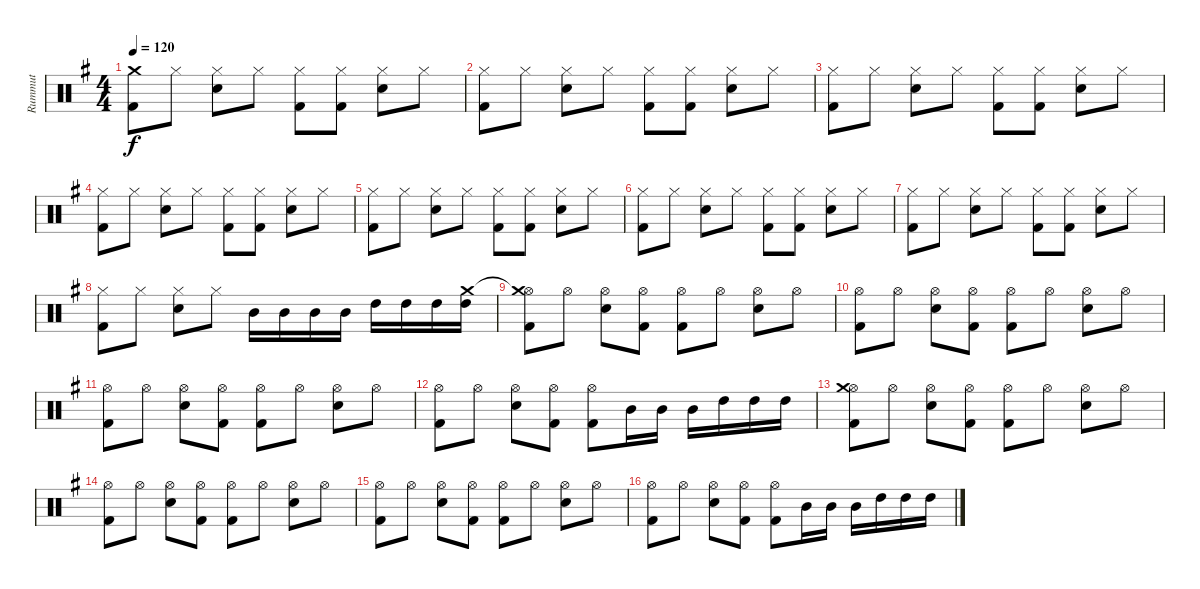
\track ("Rummut" "Rummut") {instrument percussion}
\staff {score}
\articulation defaults
\ts (4 4)
\tempo 120
\clef neutral
\ks g
("Kick (hit) 2" "Crash medium (hit)").8{dy f} "Hi-Hat (closed)".8 ("Snare (hit) 2" "Hi-Hat (closed)").8 "Hi-Hat (closed)".8 ("Kick (hit) 2" "Hi-Hat (closed)").8 ("Kick (hit) 2" "Hi-Hat (closed)").8 ("Snare (hit) 2" "Hi-Hat (closed)").8 "Hi-Hat (closed)".8 |
("Kick (hit) 2" "Hi-Hat (closed)").8 "Hi-Hat (closed)".8 ("Snare (hit) 2" "Hi-Hat (closed)").8 "Hi-Hat (closed)".8 ("Kick (hit) 2" "Hi-Hat (closed)").8 ("Kick (hit) 2" "Hi-Hat (closed)").8 ("Snare (hit) 2" "Hi-Hat (closed)").8 "Hi-Hat (closed)".8 |
("Kick (hit) 2" "Hi-Hat (closed)").8 "Hi-Hat (closed)".8 ("Snare (hit) 2" "Hi-Hat (closed)").8 "Hi-Hat (closed)".8 ("Kick (hit) 2" "Hi-Hat (closed)").8 ("Kick (hit) 2" "Hi-Hat (closed)").8 ("Snare (hit) 2" "Hi-Hat (closed)").8 "Hi-Hat (closed)".8 |
("Kick (hit) 2" "Hi-Hat (closed)").8 "Hi-Hat (closed)".8 ("Snare (hit) 2" "Hi-Hat (closed)").8 "Hi-Hat (closed)".8 ("Kick (hit) 2" "Hi-Hat (closed)").8 ("Kick (hit) 2" "Hi-Hat (closed)").8 ("Snare (hit) 2" "Hi-Hat (closed)").8 "Hi-Hat (closed)".8 |
("Kick (hit) 2" "Hi-Hat (closed)").8 "Hi-Hat (closed)".8 ("Snare (hit) 2" "Hi-Hat (closed)").8 "Hi-Hat (closed)".8 ("Kick (hit) 2" "Hi-Hat (closed)").8 ("Kick (hit) 2" "Hi-Hat (closed)").8 ("Snare (hit) 2" "Hi-Hat (closed)").8 "Hi-Hat (closed)".8 |
("Kick (hit) 2" "Hi-Hat (closed)").8 "Hi-Hat (closed)".8 ("Snare (hit) 2" "Hi-Hat (closed)").8 "Hi-Hat (closed)".8 ("Kick (hit) 2" "Hi-Hat (closed)").8 ("Kick (hit) 2" "Hi-Hat (closed)").8 ("Snare (hit) 2" "Hi-Hat (closed)").8 "Hi-Hat (closed)".8 |
("Kick (hit) 2" "Hi-Hat (closed)").8 "Hi-Hat (closed)".8 ("Snare (hit) 2" "Hi-Hat (closed)").8 "Hi-Hat (closed)".8 ("Kick (hit) 2" "Hi-Hat (closed)").8 ("Kick (hit) 2" "Hi-Hat (closed)").8 ("Snare (hit) 2" "Hi-Hat (closed)").8 "Hi-Hat (closed)".8 |
("Kick (hit) 2" "Hi-Hat (closed)").8 "Hi-Hat (closed)".8 ("Snare (hit) 2" "Hi-Hat (closed)").8 "Hi-Hat (closed)".8 "Mid Tom (hit)".16 "Mid Tom (hit)".16 "Mid Tom (hit)".16 "Mid Tom (hit)".16 "High Tom (hit)".16 "High Tom (hit)".16 "High Tom (hit)".16 ("High Tom (hit)" "Crash medium (hit)").16 |
("Hi-Hat (open)" "Crash medium (hit)"{t} "Kick (hit) 2").8 "Hi-Hat (open)".8 ("Hi-Hat (open)" "Electric Snare (hit)").8 ("Hi-Hat (open)" "Kick (hit) 2").8 ("Hi-Hat (open)" "Kick (hit) 2").8 "Hi-Hat (open)".8 ("Hi-Hat (open)" "Electric Snare (hit)").8 "Hi-Hat (open)".8 |
("Hi-Hat (open)" "Kick (hit) 2").8 "Hi-Hat (open)".8 ("Hi-Hat (open)" "Electric Snare (hit)").8 ("Hi-Hat (open)" "Kick (hit) 2").8 ("Hi-Hat (open)" "Kick (hit) 2").8 "Hi-Hat (open)".8 ("Hi-Hat (open)" "Electric Snare (hit)").8 "Hi-Hat (open)".8 |
("Hi-Hat (open)" "Kick (hit) 2").8 "Hi-Hat (open)".8 ("Hi-Hat (open)" "Electric Snare (hit)").8 ("Hi-Hat (open)" "Kick (hit) 2").8 ("Hi-Hat (open)" "Kick (hit) 2").8 "Hi-Hat (open)".8 ("Hi-Hat (open)" "Electric Snare (hit)").8 "Hi-Hat (open)".8 |
("Hi-Hat (open)" "Kick (hit) 2").8 "Hi-Hat (open)".8 ("Hi-Hat (open)" "Electric Snare (hit)").8 ("Hi-Hat (open)" "Kick (hit) 2").8 ("Hi-Hat (open)" "Kick (hit) 2").8 "Mid Tom (hit)".16 "Mid Tom (hit)".16 "Mid Tom (hit)".16 "High Tom (hit)".16 "High Tom (hit)".16 "High Tom (hit)".16 |
("Hi-Hat (open)" "Crash medium (hit)" "Kick (hit) 2").8 "Hi-Hat (open)".8 ("Hi-Hat (open)" "Electric Snare (hit)").8 ("Hi-Hat (open)" "Kick (hit) 2").8 ("Hi-Hat (open)" "Kick (hit) 2").8 "Hi-Hat (open)".8 ("Hi-Hat (open)" "Electric Snare (hit)").8 "Hi-Hat (open)".8 |
("Hi-Hat (open)" "Kick (hit) 2").8 "Hi-Hat (open)".8 ("Hi-Hat (open)" "Electric Snare (hit)").8 ("Hi-Hat (open)" "Kick (hit) 2").8 ("Hi-Hat (open)" "Kick (hit) 2").8 "Hi-Hat (open)".8 ("Hi-Hat (open)" "Electric Snare (hit)").8 "Hi-Hat (open)".8 |
("Hi-Hat (open)" "Kick (hit) 2").8 "Hi-Hat (open)".8 ("Hi-Hat (open)" "Electric Snare (hit)").8 ("Hi-Hat (open)" "Kick (hit) 2").8 ("Hi-Hat (open)" "Kick (hit) 2").8 "Hi-Hat (open)".8 ("Hi-Hat (open)" "Electric Snare (hit)").8 "Hi-Hat (open)".8 |
("Hi-Hat (open)" "Kick (hit) 2").8 "Hi-Hat (open)".8 ("Hi-Hat (open)" "Electric Snare (hit)").8 ("Hi-Hat (open)" "Kick (hit) 2").8 ("Hi-Hat (open)" "Kick (hit) 2").8 "Mid Tom (hit)".16 "Mid Tom (hit)".16 "Mid Tom (hit)".16 "High Tom (hit)".16 "High Tom (hit)".16 "High Tom (hit)".16
